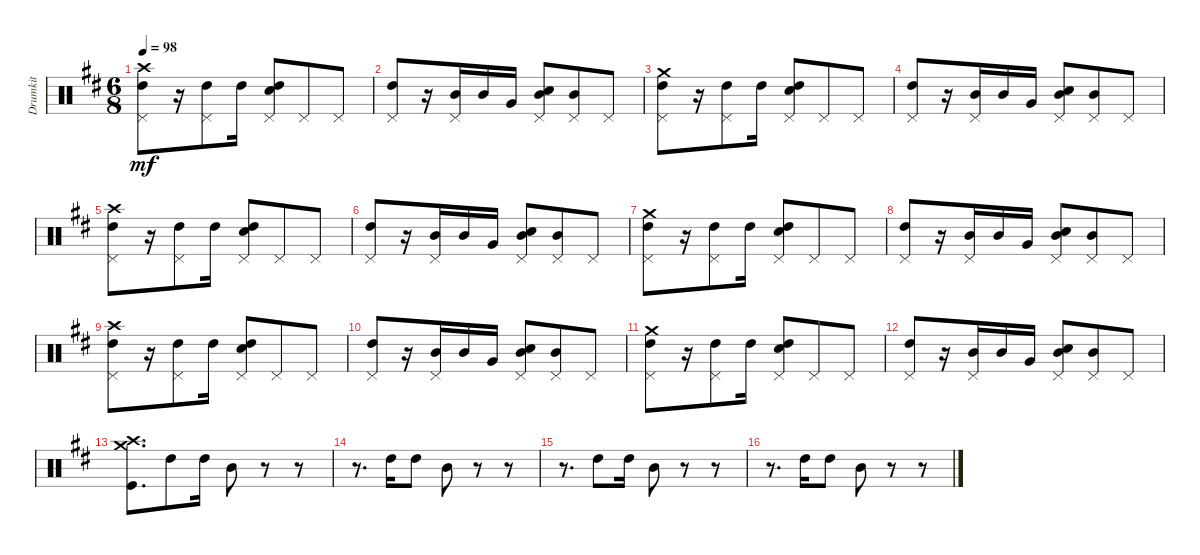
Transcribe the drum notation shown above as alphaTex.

\track ("Drumkit" "Drumkit") {instrument percussion}
\staff {score}
\articulation defaults
\ts (6 8)
\tempo 98
\clef neutral
\ks d
("High Tom (hit)" "Pedal Hi-Hat (hit)" "Crash high (hit)").8{dy mf} r.16 ("High Tom (hit)" "Pedal Hi-Hat (hit)").8 "High Tom (hit)".16 ("High Tom (hit)" "Snare (hit) 2" "Pedal Hi-Hat (hit)").8 "Pedal Hi-Hat (hit)".8 "Pedal Hi-Hat (hit)".8 |
("High Tom (hit)" "Pedal Hi-Hat (hit)").8 r.16 ("Mid Tom (hit)" "Pedal Hi-Hat (hit)").16 "Mid Tom (hit)".16 "Very Low Tom (hit)".16 ("Mid Tom (hit)" "Snare (hit) 2" "Pedal Hi-Hat (hit)").8 ("Mid Tom (hit)" "Pedal Hi-Hat (hit)").8 "Pedal Hi-Hat (hit)".8 |
("High Tom (hit)" "Pedal Hi-Hat (hit)" "Crash medium (hit)").8 r.16 ("High Tom (hit)" "Pedal Hi-Hat (hit)").8 "High Tom (hit)".16 ("High Tom (hit)" "Snare (hit) 2" "Pedal Hi-Hat (hit)").8 "Pedal Hi-Hat (hit)".8 "Pedal Hi-Hat (hit)".8 |
("High Tom (hit)" "Pedal Hi-Hat (hit)").8 r.16 ("Mid Tom (hit)" "Pedal Hi-Hat (hit)").16 "Mid Tom (hit)".16 "Very Low Tom (hit)".16 ("Mid Tom (hit)" "Snare (hit) 2" "Pedal Hi-Hat (hit)").8 ("Mid Tom (hit)" "Pedal Hi-Hat (hit)").8 "Pedal Hi-Hat (hit)".8 |
("High Tom (hit)" "Pedal Hi-Hat (hit)" "Crash high (hit)").8 r.16 ("High Tom (hit)" "Pedal Hi-Hat (hit)").8 "High Tom (hit)".16 ("High Tom (hit)" "Snare (hit) 2" "Pedal Hi-Hat (hit)").8 "Pedal Hi-Hat (hit)".8 "Pedal Hi-Hat (hit)".8 |
("High Tom (hit)" "Pedal Hi-Hat (hit)").8 r.16 ("Mid Tom (hit)" "Pedal Hi-Hat (hit)").16 "Mid Tom (hit)".16 "Very Low Tom (hit)".16 ("Mid Tom (hit)" "Snare (hit) 2" "Pedal Hi-Hat (hit)").8 ("Mid Tom (hit)" "Pedal Hi-Hat (hit)").8 "Pedal Hi-Hat (hit)".8 |
("High Tom (hit)" "Pedal Hi-Hat (hit)" "Crash medium (hit)").8 r.16 ("High Tom (hit)" "Pedal Hi-Hat (hit)").8 "High Tom (hit)".16 ("High Tom (hit)" "Snare (hit) 2" "Pedal Hi-Hat (hit)").8 "Pedal Hi-Hat (hit)".8 "Pedal Hi-Hat (hit)".8 |
("High Tom (hit)" "Pedal Hi-Hat (hit)").8 r.16 ("Mid Tom (hit)" "Pedal Hi-Hat (hit)").16 "Mid Tom (hit)".16 "Very Low Tom (hit)".16 ("Mid Tom (hit)" "Snare (hit) 2" "Pedal Hi-Hat (hit)").8 ("Mid Tom (hit)" "Pedal Hi-Hat (hit)").8 "Pedal Hi-Hat (hit)".8 |
("High Tom (hit)" "Pedal Hi-Hat (hit)" "Crash high (hit)").8 r.16 ("High Tom (hit)" "Pedal Hi-Hat (hit)").8 "High Tom (hit)".16 ("High Tom (hit)" "Snare (hit) 2" "Pedal Hi-Hat (hit)").8 "Pedal Hi-Hat (hit)".8 "Pedal Hi-Hat (hit)".8 |
("High Tom (hit)" "Pedal Hi-Hat (hit)").8 r.16 ("Mid Tom (hit)" "Pedal Hi-Hat (hit)").16 "Mid Tom (hit)".16 "Very Low Tom (hit)".16 ("Mid Tom (hit)" "Snare (hit) 2" "Pedal Hi-Hat (hit)").8 ("Mid Tom (hit)" "Pedal Hi-Hat (hit)").8 "Pedal Hi-Hat (hit)".8 |
("High Tom (hit)" "Pedal Hi-Hat (hit)" "Crash medium (hit)").8 r.16 ("High Tom (hit)" "Pedal Hi-Hat (hit)").8 "High Tom (hit)".16 ("High Tom (hit)" "Snare (hit) 2" "Pedal Hi-Hat (hit)").8 "Pedal Hi-Hat (hit)".8 "Pedal Hi-Hat (hit)".8 |
("High Tom (hit)" "Pedal Hi-Hat (hit)").8 r.16 ("Mid Tom (hit)" "Pedal Hi-Hat (hit)").16 "Mid Tom (hit)".16 "Very Low Tom (hit)".16 ("Mid Tom (hit)" "Snare (hit) 2" "Pedal Hi-Hat (hit)").8 ("Mid Tom (hit)" "Pedal Hi-Hat (hit)").8 "Pedal Hi-Hat (hit)".8 |
("Kick (hit)" "Crash high (hit)" "Crash medium (hit)").8{d} "High Tom (hit)".8 "High Tom (hit)".16 "Mid Tom (hit)".8 r.8 r.8 |
r.8{d} "High Tom (hit)".16 "High Tom (hit)".8 "Mid Tom (hit)".8 r.8 r.8 |
r.8{d} "High Tom (hit)".8 "High Tom (hit)".16 "Mid Tom (hit)".8 r.8 r.8 |
r.8{d} "High Tom (hit)".16 "High Tom (hit)".8 "Mid Tom (hit)".8 r.8 r.8
